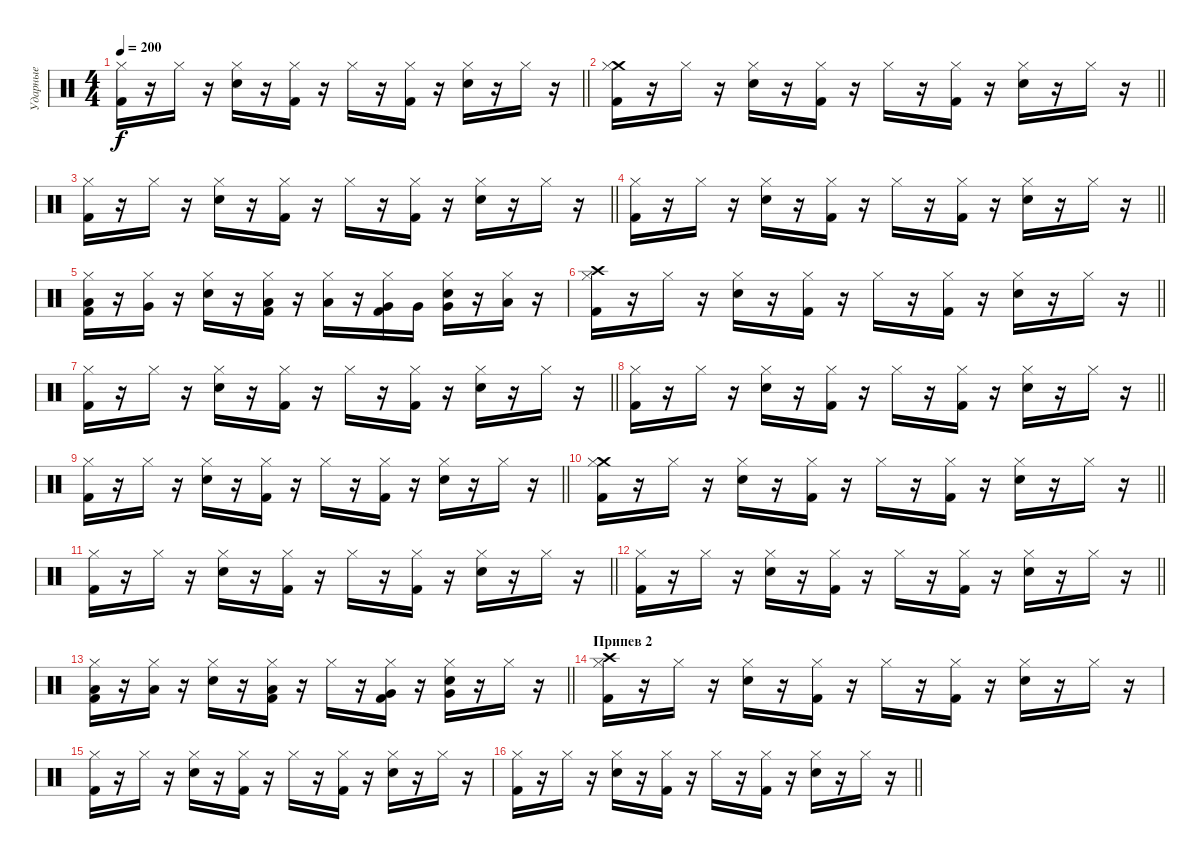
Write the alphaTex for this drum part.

\track ("Ударные" "Ударные") {instrument percussion}
\staff {score}
\articulation defaults
\ts (4 4)
\tempo 200
\clef neutral
\barLineRight lightlight
\ks c
("Kick (hit) 2" "Hi-Hat (closed)").16{dy f} r.16 "Hi-Hat (closed)".16 r.16 ("Snare (hit) 2" "Hi-Hat (closed)").16 r.16 ("Kick (hit) 2" "Hi-Hat (closed)").16 r.16 "Hi-Hat (closed)".16 r.16 ("Kick (hit) 2" "Hi-Hat (closed)").16 r.16 ("Snare (hit) 2" "Hi-Hat (closed)").16 r.16 "Hi-Hat (closed)".16 r.16 |
\barLineRight lightlight
("Kick (hit) 2" "Crash medium (hit)" "Hi-Hat (closed)").16 r.16 "Hi-Hat (closed)".16 r.16 ("Snare (hit) 2" "Hi-Hat (closed)").16 r.16 ("Kick (hit) 2" "Hi-Hat (closed)").16 r.16 "Hi-Hat (closed)".16 r.16 ("Kick (hit) 2" "Hi-Hat (closed)").16 r.16 ("Snare (hit) 2" "Hi-Hat (closed)").16 r.16 "Hi-Hat (closed)".16 r.16 |
\barLineRight lightlight
("Kick (hit) 2" "Hi-Hat (closed)").16 r.16 "Hi-Hat (closed)".16 r.16 ("Snare (hit) 2" "Hi-Hat (closed)").16 r.16 ("Kick (hit) 2" "Hi-Hat (closed)").16 r.16 "Hi-Hat (closed)".16 r.16 ("Kick (hit) 2" "Hi-Hat (closed)").16 r.16 ("Snare (hit) 2" "Hi-Hat (closed)").16 r.16 "Hi-Hat (closed)".16 r.16 |
\barLineRight lightlight
("Kick (hit) 2" "Hi-Hat (closed)").16 r.16 "Hi-Hat (closed)".16 r.16 ("Snare (hit) 2" "Hi-Hat (closed)").16 r.16 ("Kick (hit) 2" "Hi-Hat (closed)").16 r.16 "Hi-Hat (closed)".16 r.16 ("Kick (hit) 2" "Hi-Hat (closed)").16 r.16 ("Snare (hit) 2" "Hi-Hat (closed)").16 r.16 "Hi-Hat (closed)".16 r.16 |
("Kick (hit) 2" "Low Floor Tom (hit)" "Hi-Hat (closed)").16 r.16 ("Very Low Tom (hit)" "Hi-Hat (closed)").16 r.16 ("Snare (hit) 2" "Hi-Hat (closed)").16 r.16 ("Kick (hit) 2" "Low Floor Tom (hit)" "Hi-Hat (closed)").16 r.16 ("Low Floor Tom (hit)" "Hi-Hat (closed)").16 r.16 ("Kick (hit) 2" "Very Low Tom (hit)" "Hi-Hat (closed)").16 "Very Low Tom (hit)".16 ("Snare (hit) 2" "Very Low Tom (hit)" "Hi-Hat (closed)").16 r.16 ("Low Tom (hit)" "Hi-Hat (closed)").16 r.16 |
\barLineRight lightlight
("Kick (hit) 2" "Crash high (hit)" "Hi-Hat (closed)").16 r.16 "Hi-Hat (closed)".16 r.16 ("Snare (hit) 2" "Hi-Hat (closed)").16 r.16 ("Kick (hit) 2" "Hi-Hat (closed)").16 r.16 "Hi-Hat (closed)".16 r.16 ("Kick (hit) 2" "Hi-Hat (closed)").16 r.16 ("Snare (hit) 2" "Hi-Hat (closed)").16 r.16 "Hi-Hat (closed)".16 r.16 |
\barLineRight lightlight
("Kick (hit) 2" "Hi-Hat (closed)").16 r.16 "Hi-Hat (closed)".16 r.16 ("Snare (hit) 2" "Hi-Hat (closed)").16 r.16 ("Kick (hit) 2" "Hi-Hat (closed)").16 r.16 "Hi-Hat (closed)".16 r.16 ("Kick (hit) 2" "Hi-Hat (closed)").16 r.16 ("Snare (hit) 2" "Hi-Hat (closed)").16 r.16 "Hi-Hat (closed)".16 r.16 |
\barLineRight lightlight
("Kick (hit) 2" "Hi-Hat (closed)").16 r.16 "Hi-Hat (closed)".16 r.16 ("Snare (hit) 2" "Hi-Hat (closed)").16 r.16 ("Kick (hit) 2" "Hi-Hat (closed)").16 r.16 "Hi-Hat (closed)".16 r.16 ("Kick (hit) 2" "Hi-Hat (closed)").16 r.16 ("Snare (hit) 2" "Hi-Hat (closed)").16 r.16 "Hi-Hat (closed)".16 r.16 |
\barLineRight lightlight
("Kick (hit) 2" "Hi-Hat (closed)").16 r.16 "Hi-Hat (closed)".16 r.16 ("Snare (hit) 2" "Hi-Hat (closed)").16 r.16 ("Kick (hit) 2" "Hi-Hat (closed)").16 r.16 "Hi-Hat (closed)".16 r.16 ("Kick (hit) 2" "Hi-Hat (closed)").16 r.16 ("Snare (hit) 2" "Hi-Hat (closed)").16 r.16 "Hi-Hat (closed)".16 r.16 |
\barLineRight lightlight
("Kick (hit) 2" "Crash medium (hit)" "Hi-Hat (closed)").16 r.16 "Hi-Hat (closed)".16 r.16 ("Snare (hit) 2" "Hi-Hat (closed)").16 r.16 ("Kick (hit) 2" "Hi-Hat (closed)").16 r.16 "Hi-Hat (closed)".16 r.16 ("Kick (hit) 2" "Hi-Hat (closed)").16 r.16 ("Snare (hit) 2" "Hi-Hat (closed)").16 r.16 "Hi-Hat (closed)".16 r.16 |
\barLineRight lightlight
("Kick (hit) 2" "Hi-Hat (closed)").16 r.16 "Hi-Hat (closed)".16 r.16 ("Snare (hit) 2" "Hi-Hat (closed)").16 r.16 ("Kick (hit) 2" "Hi-Hat (closed)").16 r.16 "Hi-Hat (closed)".16 r.16 ("Kick (hit) 2" "Hi-Hat (closed)").16 r.16 ("Snare (hit) 2" "Hi-Hat (closed)").16 r.16 "Hi-Hat (closed)".16 r.16 |
\barLineRight lightlight
("Kick (hit) 2" "Hi-Hat (closed)").16 r.16 "Hi-Hat (closed)".16 r.16 ("Snare (hit) 2" "Hi-Hat (closed)").16 r.16 ("Kick (hit) 2" "Hi-Hat (closed)").16 r.16 "Hi-Hat (closed)".16 r.16 ("Kick (hit) 2" "Hi-Hat (closed)").16 r.16 ("Snare (hit) 2" "Hi-Hat (closed)").16 r.16 "Hi-Hat (closed)".16 r.16 |
\barLineRight lightlight
("Kick (hit) 2" "Low Floor Tom (hit)" "Hi-Hat (closed)").16 r.16 ("Low Floor Tom (hit)" "Hi-Hat (closed)").16 r.16 ("Snare (hit) 2" "Hi-Hat (closed)").16 r.16 ("Kick (hit) 2" "Low Floor Tom (hit)" "Hi-Hat (closed)").16 r.16 "Hi-Hat (closed)".16 r.16 ("Kick (hit) 2" "Very Low Tom (hit)" "Hi-Hat (closed)").16 r.16 ("Snare (hit) 2" "Very Low Tom (hit)" "Hi-Hat (closed)").16 r.16 "Hi-Hat (closed)".16 r.16 |
\section ("" "Припев 2")
("Kick (hit) 2" "Crash high (hit)" "Hi-Hat (closed)").16 r.16 "Hi-Hat (closed)".16 r.16 ("Snare (hit) 2" "Hi-Hat (closed)").16 r.16 ("Kick (hit) 2" "Hi-Hat (closed)").16 r.16 "Hi-Hat (closed)".16 r.16 ("Kick (hit) 2" "Hi-Hat (closed)").16 r.16 ("Snare (hit) 2" "Hi-Hat (closed)").16 r.16 "Hi-Hat (closed)".16 r.16 |
("Kick (hit) 2" "Hi-Hat (closed)").16 r.16 "Hi-Hat (closed)".16 r.16 ("Snare (hit) 2" "Hi-Hat (closed)").16 r.16 ("Kick (hit) 2" "Hi-Hat (closed)").16 r.16 "Hi-Hat (closed)".16 r.16 ("Kick (hit) 2" "Hi-Hat (closed)").16 r.16 ("Snare (hit) 2" "Hi-Hat (closed)").16 r.16 "Hi-Hat (closed)".16 r.16 |
\barLineRight lightlight
("Kick (hit) 2" "Hi-Hat (closed)").16 r.16 "Hi-Hat (closed)".16 r.16 ("Snare (hit) 2" "Hi-Hat (closed)").16 r.16 ("Kick (hit) 2" "Hi-Hat (closed)").16 r.16 "Hi-Hat (closed)".16 r.16 ("Kick (hit) 2" "Hi-Hat (closed)").16 r.16 ("Snare (hit) 2" "Hi-Hat (closed)").16 r.16 "Hi-Hat (closed)".16 r.16
